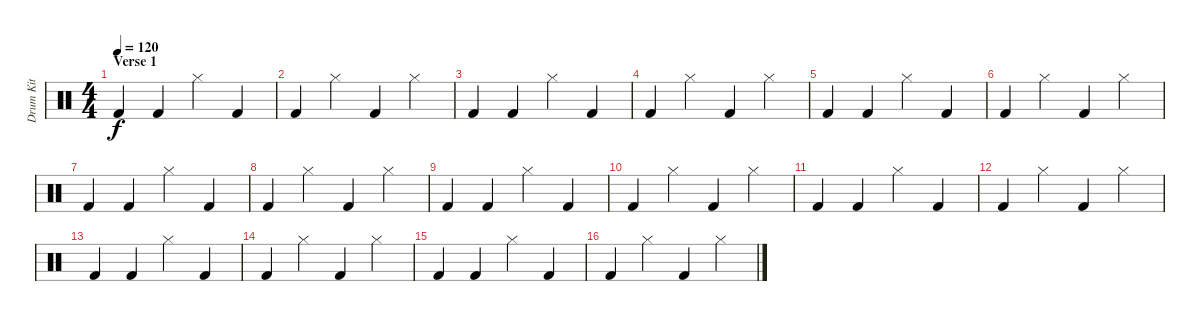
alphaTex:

\track ("Drum Kit" "Drum Kit") {instrument percussion}
\staff {score}
\articulation defaults
\ts (4 4)
\section ("" "Verse 1")
\tempo 120
\clef neutral
\ks c "Kick (hit) 2".4{dy f} "Kick (hit) 2".4 "Hi-Hat (closed)".4 "Kick (hit) 2".4
|
"Kick (hit) 2".4 "Hi-Hat (closed)".4 "Kick (hit) 2".4 "Hi-Hat (closed)".4 |
"Kick (hit) 2".4 "Kick (hit) 2".4 "Hi-Hat (closed)".4 "Kick (hit) 2".4 |
"Kick (hit) 2".4 "Hi-Hat (closed)".4 "Kick (hit) 2".4 "Hi-Hat (closed)".4 |
"Kick (hit) 2".4 "Kick (hit) 2".4 "Hi-Hat (closed)".4 "Kick (hit) 2".4 |
"Kick (hit) 2".4 "Hi-Hat (closed)".4 "Kick (hit) 2".4 "Hi-Hat (closed)".4 |
"Kick (hit) 2".4 "Kick (hit) 2".4 "Hi-Hat (closed)".4 "Kick (hit) 2".4 |
"Kick (hit) 2".4 "Hi-Hat (closed)".4 "Kick (hit) 2".4 "Hi-Hat (closed)".4 |
"Kick (hit) 2".4 "Kick (hit) 2".4 "Hi-Hat (closed)".4 "Kick (hit) 2".4 |
"Kick (hit) 2".4 "Hi-Hat (closed)".4 "Kick (hit) 2".4 "Hi-Hat (closed)".4 |
"Kick (hit) 2".4 "Kick (hit) 2".4 "Hi-Hat (closed)".4 "Kick (hit) 2".4 |
"Kick (hit) 2".4 "Hi-Hat (closed)".4 "Kick (hit) 2".4 "Hi-Hat (closed)".4 |
"Kick (hit) 2".4 "Kick (hit) 2".4 "Hi-Hat (closed)".4 "Kick (hit) 2".4 |
"Kick (hit) 2".4 "Hi-Hat (closed)".4 "Kick (hit) 2".4 "Hi-Hat (closed)".4 |
"Kick (hit) 2".4 "Kick (hit) 2".4 "Hi-Hat (closed)".4 "Kick (hit) 2".4 |
"Kick (hit) 2".4 "Hi-Hat (closed)".4 "Kick (hit) 2".4 "Hi-Hat (closed)".4
